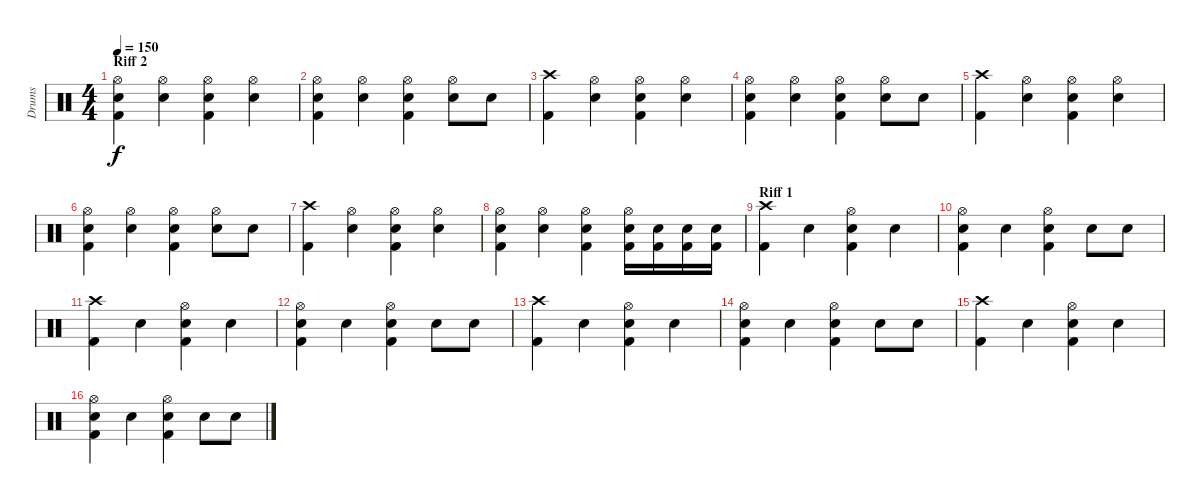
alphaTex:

\track ("Drums" "Drums") {instrument percussion}
\staff {score}
\articulation defaults
\ts (4 4)
\section ("" "Riff 2")
\tempo 150
\clef neutral
\ks c
("Hi-Hat (open)" "Snare (hit) 2" "Kick (hit) 2").4{dy f} ("Hi-Hat (open)" "Snare (hit) 2").4 ("Hi-Hat (open)" "Snare (hit) 2" "Kick (hit) 2").4 ("Hi-Hat (open)" "Snare (hit) 2").4 |
("Hi-Hat (open)" "Snare (hit) 2" "Kick (hit) 2").4 ("Hi-Hat (open)" "Snare (hit) 2").4 ("Hi-Hat (open)" "Snare (hit) 2" "Kick (hit) 2").4 ("Hi-Hat (open)" "Snare (hit) 2").8 "Snare (hit) 2".8 |
("Crash high (hit)" "Kick (hit) 2").4 ("Hi-Hat (open)" "Snare (hit) 2").4 ("Hi-Hat (open)" "Snare (hit) 2" "Kick (hit) 2").4 ("Hi-Hat (open)" "Snare (hit) 2").4 |
("Hi-Hat (open)" "Snare (hit) 2" "Kick (hit) 2").4 ("Hi-Hat (open)" "Snare (hit) 2").4 ("Hi-Hat (open)" "Snare (hit) 2" "Kick (hit) 2").4 ("Hi-Hat (open)" "Snare (hit) 2").8 "Snare (hit) 2".8 |
("Crash high (hit)" "Kick (hit) 2").4 ("Hi-Hat (open)" "Snare (hit) 2").4 ("Hi-Hat (open)" "Snare (hit) 2" "Kick (hit) 2").4 ("Hi-Hat (open)" "Snare (hit) 2").4 |
("Hi-Hat (open)" "Snare (hit) 2" "Kick (hit) 2").4 ("Hi-Hat (open)" "Snare (hit) 2").4 ("Hi-Hat (open)" "Snare (hit) 2" "Kick (hit) 2").4 ("Hi-Hat (open)" "Snare (hit) 2").8 "Snare (hit) 2".8 |
("Crash high (hit)" "Kick (hit) 2").4 ("Hi-Hat (open)" "Snare (hit) 2").4 ("Hi-Hat (open)" "Snare (hit) 2" "Kick (hit) 2").4 ("Hi-Hat (open)" "Snare (hit) 2").4 |
("Hi-Hat (open)" "Snare (hit) 2" "Kick (hit) 2").4 ("Hi-Hat (open)" "Snare (hit) 2").4 ("Hi-Hat (open)" "Snare (hit) 2" "Kick (hit) 2").4 ("Hi-Hat (open)" "Snare (hit) 2" "Kick (hit) 2").16 ("Snare (hit) 2" "Kick (hit) 2").16 ("Snare (hit) 2" "Kick (hit) 2").16 ("Snare (hit) 2" "Kick (hit) 2").16 |
\section ("" "Riff 1")
("Crash high (hit)" "Kick (hit) 2").4 "Snare (hit) 2".4 ("Hi-Hat (open)" "Snare (hit) 2" "Kick (hit) 2").4 "Snare (hit) 2".4 |
("Hi-Hat (open)" "Snare (hit) 2" "Kick (hit) 2").4 "Snare (hit) 2".4 ("Hi-Hat (open)" "Snare (hit) 2" "Kick (hit) 2").4 "Snare (hit) 2".8 "Snare (hit) 2".8 |
("Crash high (hit)" "Kick (hit) 2").4 "Snare (hit) 2".4 ("Hi-Hat (open)" "Snare (hit) 2" "Kick (hit) 2").4 "Snare (hit) 2".4 |
("Hi-Hat (open)" "Snare (hit) 2" "Kick (hit) 2").4 "Snare (hit) 2".4 ("Hi-Hat (open)" "Snare (hit) 2" "Kick (hit) 2").4 "Snare (hit) 2".8 "Snare (hit) 2".8 |
("Crash high (hit)" "Kick (hit) 2").4 "Snare (hit) 2".4 ("Hi-Hat (open)" "Snare (hit) 2" "Kick (hit) 2").4 "Snare (hit) 2".4 |
("Hi-Hat (open)" "Snare (hit) 2" "Kick (hit) 2").4 "Snare (hit) 2".4 ("Hi-Hat (open)" "Snare (hit) 2" "Kick (hit) 2").4 "Snare (hit) 2".8 "Snare (hit) 2".8 |
("Crash high (hit)" "Kick (hit) 2").4 "Snare (hit) 2".4 ("Hi-Hat (open)" "Snare (hit) 2" "Kick (hit) 2").4 "Snare (hit) 2".4 |
("Hi-Hat (open)" "Snare (hit) 2" "Kick (hit) 2").4 "Snare (hit) 2".4 ("Hi-Hat (open)" "Snare (hit) 2" "Kick (hit) 2").4 "Snare (hit) 2".8 "Snare (hit) 2".8
